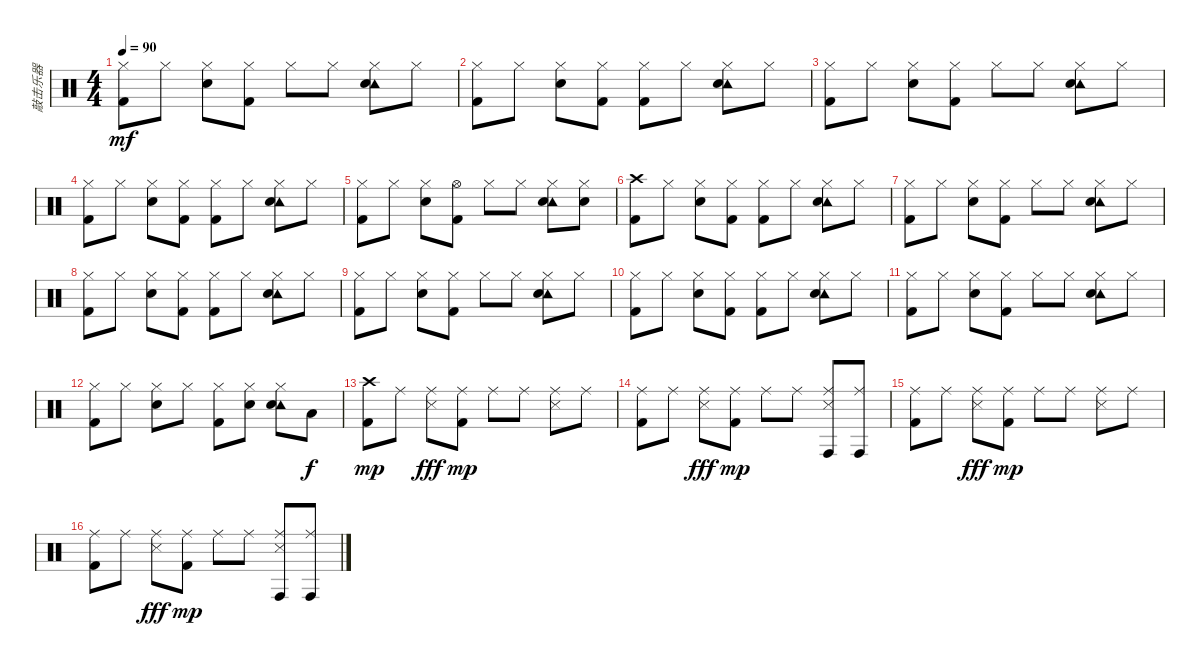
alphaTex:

\track ("敲击乐器" "敲击乐器") {instrument percussion}
\staff {score}
\articulation defaults
\ts (4 4)
\tempo 90
\clef neutral
\ks c
("Hi-Hat (closed)" "Kick (hit) 2").8{dy mf} "Hi-Hat (closed)".8 ("Hi-Hat (closed)" "Snare (hit) 2").8 ("Hi-Hat (closed)" "Kick (hit) 2").8 "Hi-Hat (closed)".8 "Hi-Hat (closed)".8 ("Hi-Hat (closed)" "Tambourine (hit)" "Snare (hit) 2").8 "Hi-Hat (closed)".8 |
("Hi-Hat (closed)" "Kick (hit) 2").8 "Hi-Hat (closed)".8 ("Hi-Hat (closed)" "Snare (hit) 2").8 ("Hi-Hat (closed)" "Kick (hit) 2").8 ("Hi-Hat (closed)" "Kick (hit) 2").8 "Hi-Hat (closed)".8 ("Hi-Hat (closed)" "Tambourine (hit)" "Snare (hit) 2").8 "Hi-Hat (closed)".8 |
("Hi-Hat (closed)" "Kick (hit) 2").8 "Hi-Hat (closed)".8 ("Hi-Hat (closed)" "Snare (hit) 2").8 ("Hi-Hat (closed)" "Kick (hit) 2").8 "Hi-Hat (closed)".8 "Hi-Hat (closed)".8 ("Hi-Hat (closed)" "Tambourine (hit)" "Snare (hit) 2").8 "Hi-Hat (closed)".8 |
("Hi-Hat (closed)" "Kick (hit) 2").8 "Hi-Hat (closed)".8 ("Hi-Hat (closed)" "Snare (hit) 2").8 ("Hi-Hat (closed)" "Kick (hit) 2").8 ("Hi-Hat (closed)" "Kick (hit) 2").8 "Hi-Hat (closed)".8 ("Hi-Hat (closed)" "Tambourine (hit)" "Snare (hit) 2").8 "Hi-Hat (closed)".8 |
("Hi-Hat (closed)" "Kick (hit) 2").8 "Hi-Hat (closed)".8 ("Hi-Hat (closed)" "Snare (hit) 2").8 ("Hi-Hat (open)" "Kick (hit) 2").8 "Hi-Hat (closed)".8 "Hi-Hat (closed)".8 ("Hi-Hat (closed)" "Tambourine (hit)" "Snare (hit) 2").8 ("Hi-Hat (closed)" "Snare (hit) 2").8 |
("Crash high (hit)" "Kick (hit) 2").8 "Hi-Hat (closed)".8 ("Hi-Hat (closed)" "Snare (hit) 2").8 ("Hi-Hat (closed)" "Kick (hit) 2").8 ("Hi-Hat (closed)" "Kick (hit) 2").8 "Hi-Hat (closed)".8 ("Hi-Hat (closed)" "Tambourine (hit)" "Snare (hit) 2").8 "Hi-Hat (closed)".8 |
("Hi-Hat (closed)" "Kick (hit) 2").8 "Hi-Hat (closed)".8 ("Hi-Hat (closed)" "Snare (hit) 2").8 ("Hi-Hat (closed)" "Kick (hit) 2").8 "Hi-Hat (closed)".8 "Hi-Hat (closed)".8 ("Hi-Hat (closed)" "Tambourine (hit)" "Snare (hit) 2").8 "Hi-Hat (closed)".8 |
("Hi-Hat (closed)" "Kick (hit) 2").8 "Hi-Hat (closed)".8 ("Hi-Hat (closed)" "Snare (hit) 2").8 ("Hi-Hat (closed)" "Kick (hit) 2").8 ("Hi-Hat (closed)" "Kick (hit) 2").8 "Hi-Hat (closed)".8 ("Hi-Hat (closed)" "Tambourine (hit)" "Snare (hit) 2").8 "Hi-Hat (closed)".8 |
("Hi-Hat (closed)" "Kick (hit) 2").8 "Hi-Hat (closed)".8 ("Hi-Hat (closed)" "Snare (hit) 2").8 ("Hi-Hat (closed)" "Kick (hit) 2").8 "Hi-Hat (closed)".8 "Hi-Hat (closed)".8 ("Hi-Hat (closed)" "Tambourine (hit)" "Snare (hit) 2").8 "Hi-Hat (closed)".8 |
("Hi-Hat (closed)" "Kick (hit) 2").8 "Hi-Hat (closed)".8 ("Hi-Hat (closed)" "Snare (hit) 2").8 ("Hi-Hat (closed)" "Kick (hit) 2").8 ("Hi-Hat (closed)" "Kick (hit) 2").8 "Hi-Hat (closed)".8 ("Hi-Hat (closed)" "Tambourine (hit)" "Snare (hit) 2").8 "Hi-Hat (closed)".8 |
("Hi-Hat (closed)" "Kick (hit) 2").8 "Hi-Hat (closed)".8 ("Hi-Hat (closed)" "Snare (hit) 2").8 ("Hi-Hat (closed)" "Kick (hit) 2").8 "Hi-Hat (closed)".8 "Hi-Hat (closed)".8 ("Hi-Hat (closed)" "Tambourine (hit)" "Snare (hit) 2").8 "Hi-Hat (closed)".8 |
("Hi-Hat (closed)" "Kick (hit) 2").8 "Hi-Hat (closed)".8 ("Hi-Hat (closed)" "Snare (hit) 2").8 "Hi-Hat (closed)".8 ("Hi-Hat (closed)" "Kick (hit) 2").8 ("Hi-Hat (closed)" "Snare (hit) 2").8 ("Hi-Hat (closed)" "Tambourine (hit)" "Snare (hit) 2").8 "Low Tom (hit)".8{dy f} |
("Crash high (hit)" "Kick (hit) 2").8{dy mp} "Ride (middle)".8 ("Ride (middle)" "Snare (side stick) 3").8{dy fff} ("Ride (middle)" "Kick (hit) 2").8{dy mp} "Ride (middle)".8 "Ride (middle)".8 ("Ride (middle)" "Snare (side stick) 3").8 "Ride (middle)".8 |
("Ride (middle)" "Kick (hit) 2").8 "Ride (middle)".8 ("Ride (middle)" "Snare (side stick) 3").8{dy fff} ("Ride (middle)" "Kick (hit) 2").8{dy mp} "Ride (middle)".8 "Ride (middle)".8 ("Ride (middle)" "Conga high (hit)" "Snare (side stick) 3").8 ("Ride (middle)" "Conga high (hit)").8 |
("Ride (middle)" "Kick (hit) 2").8 "Ride (middle)".8 ("Ride (middle)" "Snare (side stick) 3").8{dy fff} ("Ride (middle)" "Kick (hit) 2").8{dy mp} "Ride (middle)".8 "Ride (middle)".8 ("Ride (middle)" "Snare (side stick) 3").8 "Ride (middle)".8 |
("Ride (middle)" "Kick (hit) 2").8 "Ride (middle)".8 ("Ride (middle)" "Snare (side stick) 3").8{dy fff} ("Ride (middle)" "Kick (hit) 2").8{dy mp} "Ride (middle)".8 "Ride (middle)".8 ("Ride (middle)" "Conga high (hit)" "Snare (side stick) 3").8 ("Ride (middle)" "Conga high (hit)").8
